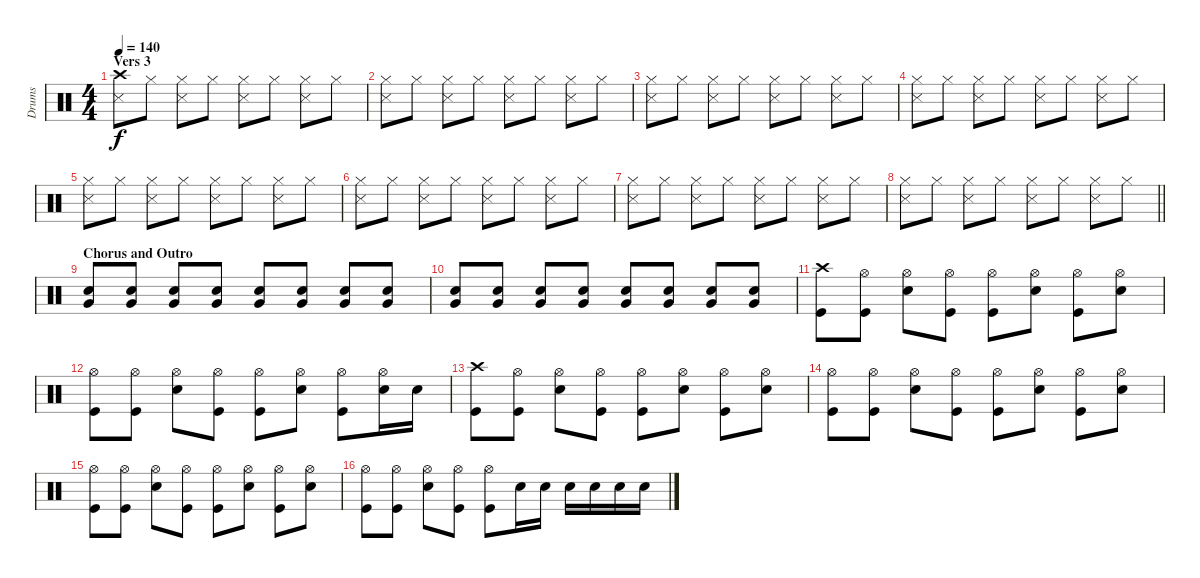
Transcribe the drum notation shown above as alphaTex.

\track ("Drums" "Drums") {instrument percussion}
\staff {score}
\articulation defaults
\ts (4 4)
\section ("" "Vers 3")
\tempo 140
\clef neutral
\ks c
("Crash high (hit)" "Snare (side stick) 3").8{dy f} "Hi-Hat (closed)".8 ("Hi-Hat (closed)" "Snare (side stick) 3").8 "Hi-Hat (closed)".8 ("Hi-Hat (closed)" "Snare (side stick) 3").8 "Hi-Hat (closed)".8 ("Hi-Hat (closed)" "Snare (side stick) 3").8 "Hi-Hat (closed)".8 |
("Hi-Hat (closed)" "Snare (side stick) 3").8 "Hi-Hat (closed)".8 ("Hi-Hat (closed)" "Snare (side stick) 3").8 "Hi-Hat (closed)".8 ("Hi-Hat (closed)" "Snare (side stick) 3").8 "Hi-Hat (closed)".8 ("Hi-Hat (closed)" "Snare (side stick) 3").8 "Hi-Hat (closed)".8 |
("Hi-Hat (closed)" "Snare (side stick) 3").8 "Hi-Hat (closed)".8 ("Hi-Hat (closed)" "Snare (side stick) 3").8 "Hi-Hat (closed)".8 ("Hi-Hat (closed)" "Snare (side stick) 3").8 "Hi-Hat (closed)".8 ("Hi-Hat (closed)" "Snare (side stick) 3").8 "Hi-Hat (closed)".8 |
("Hi-Hat (closed)" "Snare (side stick) 3").8 "Hi-Hat (closed)".8 ("Hi-Hat (closed)" "Snare (side stick) 3").8 "Hi-Hat (closed)".8 ("Hi-Hat (closed)" "Snare (side stick) 3").8 "Hi-Hat (closed)".8 ("Hi-Hat (closed)" "Snare (side stick) 3").8 "Hi-Hat (closed)".8 |
("Hi-Hat (closed)" "Snare (side stick) 3").8 "Hi-Hat (closed)".8 ("Hi-Hat (closed)" "Snare (side stick) 3").8 "Hi-Hat (closed)".8 ("Hi-Hat (closed)" "Snare (side stick) 3").8 "Hi-Hat (closed)".8 ("Hi-Hat (closed)" "Snare (side stick) 3").8 "Hi-Hat (closed)".8 |
("Hi-Hat (closed)" "Snare (side stick) 3").8 "Hi-Hat (closed)".8 ("Hi-Hat (closed)" "Snare (side stick) 3").8 "Hi-Hat (closed)".8 ("Hi-Hat (closed)" "Snare (side stick) 3").8 "Hi-Hat (closed)".8 ("Hi-Hat (closed)" "Snare (side stick) 3").8 "Hi-Hat (closed)".8 |
("Hi-Hat (closed)" "Snare (side stick) 3").8 "Hi-Hat (closed)".8 ("Hi-Hat (closed)" "Snare (side stick) 3").8 "Hi-Hat (closed)".8 ("Hi-Hat (closed)" "Snare (side stick) 3").8 "Hi-Hat (closed)".8 ("Hi-Hat (closed)" "Snare (side stick) 3").8 "Hi-Hat (closed)".8 |
\barLineRight lightlight
("Hi-Hat (closed)" "Snare (side stick) 3").8 "Hi-Hat (closed)".8 ("Hi-Hat (closed)" "Snare (side stick) 3").8 "Hi-Hat (closed)".8 ("Hi-Hat (closed)" "Snare (side stick) 3").8 "Hi-Hat (closed)".8 ("Hi-Hat (closed)" "Snare (side stick) 3").8 "Hi-Hat (closed)".8 |
\section ("" "Chorus and Outro")
("Very Low Tom (hit)" "Snare (hit) 2").8 ("Very Low Tom (hit)" "Snare (hit) 2").8{volume 1} ("Very Low Tom (hit)" "Snare (hit) 2").8{volume 7} ("Very Low Tom (hit)" "Snare (hit) 2").8 ("Very Low Tom (hit)" "Snare (hit) 2").8 ("Very Low Tom (hit)" "Snare (hit) 2").8 ("Very Low Tom (hit)" "Snare (hit) 2").8 ("Very Low Tom (hit)" "Snare (hit) 2").8 |
("Very Low Tom (hit)" "Snare (hit) 2").8 ("Very Low Tom (hit)" "Snare (hit) 2").8 ("Very Low Tom (hit)" "Snare (hit) 2").8 ("Very Low Tom (hit)" "Snare (hit) 2").8 ("Very Low Tom (hit)" "Snare (hit) 2").8 ("Very Low Tom (hit)" "Snare (hit) 2").8 ("Very Low Tom (hit)" "Snare (hit) 2").8 ("Very Low Tom (hit)" "Snare (hit) 2").8 |
("Crash high (hit)" "Kick (hit)").8 ("Hi-Hat (open)" "Kick (hit)").8 ("Hi-Hat (open)" "Snare (hit) 2").8 ("Hi-Hat (open)" "Kick (hit)").8 ("Hi-Hat (open)" "Kick (hit)").8 ("Hi-Hat (open)" "Snare (hit) 2").8 ("Hi-Hat (open)" "Kick (hit)").8 ("Hi-Hat (open)" "Snare (hit) 2").8 |
("Hi-Hat (open)" "Kick (hit)").8 ("Hi-Hat (open)" "Kick (hit)").8 ("Hi-Hat (open)" "Snare (hit) 2").8 ("Hi-Hat (open)" "Kick (hit)").8 ("Hi-Hat (open)" "Kick (hit)").8 ("Hi-Hat (open)" "Snare (hit) 2").8 ("Hi-Hat (open)" "Kick (hit)").8 ("Hi-Hat (open)" "Snare (hit) 2").16 "Snare (hit) 2".16 |
("Crash high (hit)" "Kick (hit)").8 ("Hi-Hat (open)" "Kick (hit)").8 ("Hi-Hat (open)" "Snare (hit) 2").8 ("Hi-Hat (open)" "Kick (hit)").8 ("Hi-Hat (open)" "Kick (hit)").8 ("Hi-Hat (open)" "Snare (hit) 2").8 ("Hi-Hat (open)" "Kick (hit)").8 ("Hi-Hat (open)" "Snare (hit) 2").8 |
("Hi-Hat (open)" "Kick (hit)").8 ("Hi-Hat (open)" "Kick (hit)").8 ("Hi-Hat (open)" "Snare (hit) 2").8 ("Hi-Hat (open)" "Kick (hit)").8 ("Hi-Hat (open)" "Kick (hit)").8 ("Hi-Hat (open)" "Snare (hit) 2").8 ("Hi-Hat (open)" "Kick (hit)").8 ("Hi-Hat (open)" "Snare (hit) 2").8 |
("Hi-Hat (open)" "Kick (hit)").8 ("Hi-Hat (open)" "Kick (hit)").8 ("Hi-Hat (open)" "Snare (hit) 2").8 ("Hi-Hat (open)" "Kick (hit)").8 ("Hi-Hat (open)" "Kick (hit)").8 ("Hi-Hat (open)" "Snare (hit) 2").8 ("Hi-Hat (open)" "Kick (hit)").8 ("Hi-Hat (open)" "Snare (hit) 2").8 |
("Hi-Hat (open)" "Kick (hit)").8 ("Hi-Hat (open)" "Kick (hit)").8 ("Hi-Hat (open)" "Snare (hit) 2").8 ("Hi-Hat (open)" "Kick (hit)").8 ("Hi-Hat (open)" "Kick (hit)").8 "Snare (hit) 2".16 "Snare (hit) 2".16 "Snare (hit) 2".16 "Snare (hit) 2".16 "Snare (hit) 2".16 "Snare (hit) 2".16
